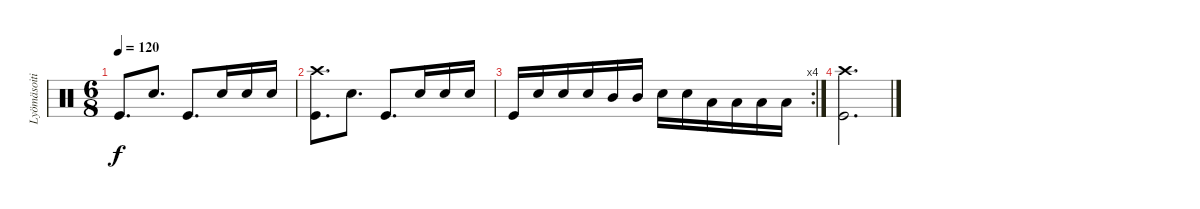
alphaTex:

\track ("Lyömäsoitin" "Lyömäsoiti") {instrument percussion}
\staff {score}
\articulation defaults
\ts (6 8)
\tempo 120
\clef neutral
\ks c "Kick (hit)".8{d dy f} "Snare (hit) 2".8{d} "Kick (hit)".8{d} "Snare (hit) 2".16 "Snare (hit) 2".16 "Snare (hit) 2".16
|
("Kick (hit)" "Crash high (hit)").8{d} "Snare (hit) 2".8{d} "Kick (hit)".8{d} "Snare (hit) 2".16 "Snare (hit) 2".16 "Snare (hit) 2".16 |
\rc 4 "Kick (hit)".16 "Snare (hit) 2".16 "Snare (hit) 2".16 "Snare (hit) 2".16 "Mid Tom (hit)".16 "Mid Tom (hit)".16 "Snare (hit) 2".16 "Snare (hit) 2".16 "Low Tom (hit)".16 "Low Tom (hit)".16 "Low Tom (hit)".16 "Low Floor Tom (hit)".16
|
("Kick (hit)" "Crash high (hit)").2{d}
